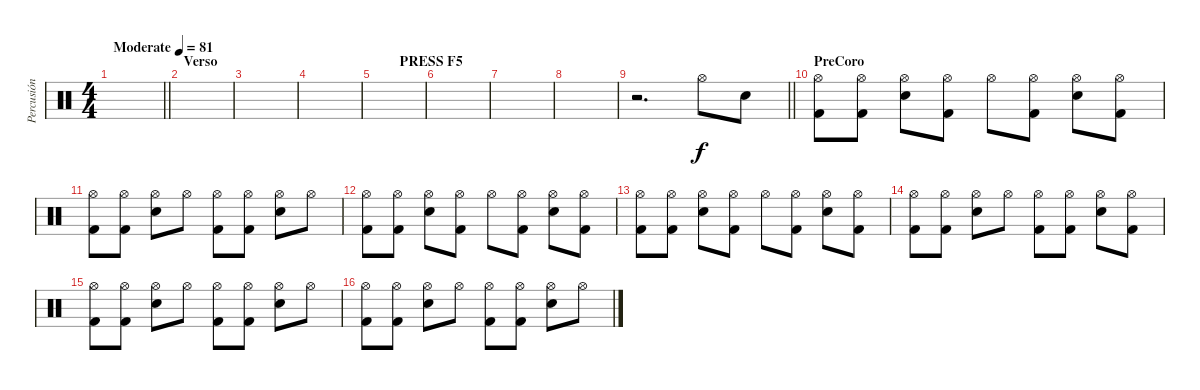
\track ("Percusión" "Percusión") {instrument percussion}
\staff {score}
\articulation defaults
\ts (4 4)
\tempo (81 "Moderate")
\clef neutral
\barLineRight lightlight
\ks c
|
\section ("" "Verso                                                    PRESS F5")
|
|
|
|
|
|
|
\barLineRight lightlight
r.2{d} "Hi-Hat (open)".8 "Electric Snare (hit)".8 |
\section ("" "PreCoro")
("Hi-Hat (open)" "Kick (hit) 2").8 ("Hi-Hat (open)" "Kick (hit) 2").8 ("Hi-Hat (open)" "Electric Snare (hit)").8 ("Hi-Hat (open)" "Kick (hit) 2").8 "Hi-Hat (open)".8 ("Hi-Hat (open)" "Kick (hit) 2").8 ("Hi-Hat (open)" "Electric Snare (hit)").8 ("Hi-Hat (open)" "Kick (hit) 2").8 |
("Hi-Hat (open)" "Kick (hit) 2").8 ("Hi-Hat (open)" "Kick (hit) 2").8 ("Hi-Hat (open)" "Electric Snare (hit)").8 "Hi-Hat (open)".8 ("Hi-Hat (open)" "Kick (hit) 2").8 ("Hi-Hat (open)" "Kick (hit) 2").8 ("Hi-Hat (open)" "Electric Snare (hit)").8 "Hi-Hat (open)".8 |
("Hi-Hat (open)" "Kick (hit) 2").8 ("Hi-Hat (open)" "Kick (hit) 2").8 ("Hi-Hat (open)" "Electric Snare (hit)").8 ("Hi-Hat (open)" "Kick (hit) 2").8 "Hi-Hat (open)".8 ("Hi-Hat (open)" "Kick (hit) 2").8 ("Hi-Hat (open)" "Electric Snare (hit)").8 ("Hi-Hat (open)" "Kick (hit) 2").8 |
("Hi-Hat (open)" "Kick (hit) 2").8 ("Hi-Hat (open)" "Kick (hit) 2").8 ("Hi-Hat (open)" "Electric Snare (hit)").8 ("Hi-Hat (open)" "Kick (hit) 2").8 "Hi-Hat (open)".8 ("Hi-Hat (open)" "Kick (hit) 2").8 ("Hi-Hat (open)" "Electric Snare (hit)").8 ("Hi-Hat (open)" "Kick (hit) 2").8 |
("Hi-Hat (open)" "Kick (hit) 2").8 ("Hi-Hat (open)" "Kick (hit) 2").8 ("Hi-Hat (open)" "Electric Snare (hit)").8 "Hi-Hat (open)".8 ("Hi-Hat (open)" "Kick (hit) 2").8 ("Hi-Hat (open)" "Kick (hit) 2").8 ("Hi-Hat (open)" "Electric Snare (hit)").8 ("Hi-Hat (open)" "Kick (hit) 2").8 |
("Hi-Hat (open)" "Kick (hit) 2").8 ("Hi-Hat (open)" "Kick (hit) 2").8 ("Hi-Hat (open)" "Electric Snare (hit)").8 "Hi-Hat (open)".8 ("Hi-Hat (open)" "Kick (hit) 2").8 ("Hi-Hat (open)" "Kick (hit) 2").8 ("Hi-Hat (open)" "Electric Snare (hit)").8 "Hi-Hat (open)".8 |
("Hi-Hat (open)" "Kick (hit) 2").8 ("Hi-Hat (open)" "Kick (hit) 2").8 ("Hi-Hat (open)" "Electric Snare (hit)").8 "Hi-Hat (open)".8 ("Hi-Hat (open)" "Kick (hit) 2").8 ("Hi-Hat (open)" "Kick (hit) 2").8 ("Hi-Hat (open)" "Electric Snare (hit)").8 "Hi-Hat (open)".8
